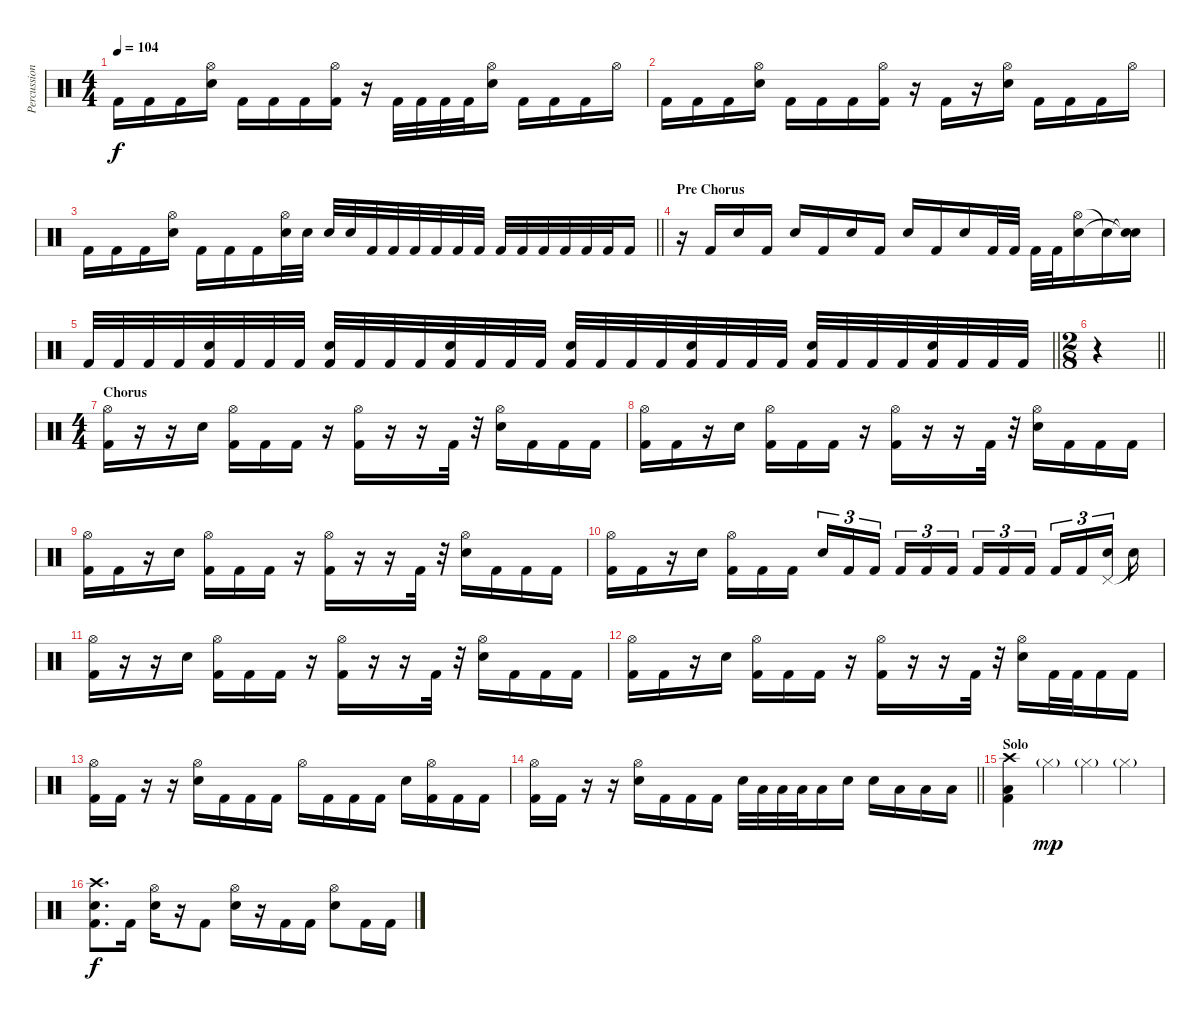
\track ("Percussion" "Percussion") {instrument percussion}
\staff {score}
\articulation defaults
\ts (4 4)
\tempo 104
\clef neutral
\ks c "Kick (hit) 2".16{dy f} "Kick (hit) 2".16 "Kick (hit) 2".16
("Hi-Hat (open)" "Snare (hit) 2").16 "Kick (hit) 2".16 "Kick (hit) 2".16 "Kick (hit) 2".16 ("Hi-Hat (open)" "Kick (hit) 2").16 r.16 "Kick (hit) 2".32 "Kick (hit) 2".32 "Kick (hit) 2".32 "Kick (hit) 2".32 ("Hi-Hat (open)" "Snare (hit) 2").16 "Kick (hit) 2".16 "Kick (hit) 2".16 "Kick (hit) 2".16 "Hi-Hat (open)".16 |
"Kick (hit) 2".16 "Kick (hit) 2".16 "Kick (hit) 2".16 ("Hi-Hat (open)" "Snare (hit) 2").16 "Kick (hit) 2".16 "Kick (hit) 2".16 "Kick (hit) 2".16 ("Hi-Hat (open)" "Kick (hit) 2").16 r.16 "Kick (hit) 2".16 r.16 ("Hi-Hat (open)" "Snare (hit) 2").16 "Kick (hit) 2".16 "Kick (hit) 2".16 "Kick (hit) 2".16 "Hi-Hat (open)".16 |
\barLineRight lightlight "Kick (hit) 2".16 "Kick (hit) 2".16 "Kick (hit) 2".16
("Hi-Hat (open)" "Snare (hit) 2").16 "Kick (hit) 2".16 "Kick (hit) 2".16 "Kick (hit) 2".16 ("Hi-Hat (open)" "Snare (hit) 2").32 "Snare (hit) 2".32 "Snare (hit) 2".32 "Snare (hit) 2".32 "Kick (hit) 2".32 "Kick (hit) 2".32 "Kick (hit) 2".32 "Kick (hit) 2".32 "Kick (hit) 2".32 "Kick (hit) 2".32 "Kick (hit) 2".32 "Kick (hit) 2".32 "Kick (hit) 2".32 "Kick (hit) 2".32 "Kick (hit) 2".32 "Kick (hit) 2".32 "Kick (hit) 2".16 |
\section ("" "Pre Chorus")
r.16 "Kick (hit) 2".16 "Snare (hit) 2".16 "Kick (hit) 2".16 "Snare (hit) 2".16 "Kick (hit) 2".16 "Snare (hit) 2".16 "Kick (hit) 2".16 "Snare (hit) 2".16 "Kick (hit) 2".16 "Snare (hit) 2".16 "Kick (hit) 2".32 "Kick (hit) 2".32 "Kick (hit) 2".32 "Kick (hit) 2".32 ("Hi-Hat (open)" "Snare (hit) 2").16 "Snare (hit)"{t}.16 ("Snare (hit)"{t} "Snare (hit)"{t}).16 |
\barLineRight lightlight "Kick (hit) 2".32 "Kick (hit) 2".32 "Kick (hit) 2".32 "Kick (hit) 2".32
("Snare (hit) 2" "Kick (hit) 2").32 "Kick (hit) 2".32 "Kick (hit) 2".32 "Kick (hit) 2".32 ("Snare (hit) 2" "Kick (hit) 2").32 "Kick (hit) 2".32 "Kick (hit) 2".32 "Kick (hit) 2".32 ("Snare (hit) 2" "Kick (hit) 2").32 "Kick (hit) 2".32 "Kick (hit) 2".32 "Kick (hit) 2".32 ("Snare (hit) 2" "Kick (hit) 2").32 "Kick (hit) 2".32 "Kick (hit) 2".32 "Kick (hit) 2".32 ("Snare (hit) 2" "Kick (hit) 2").32 "Kick (hit) 2".32 "Kick (hit) 2".32 "Kick (hit) 2".32 ("Snare (hit) 2" "Kick (hit) 2").32 "Kick (hit) 2".32 "Kick (hit) 2".32 "Kick (hit) 2".32 ("Snare (hit) 2" "Kick (hit) 2").32 "Kick (hit) 2".32 "Kick (hit) 2".32 "Kick (hit) 2".32 |
\ts (2 8)
\barLineRight lightlight
r.4 |
\ts (4 4)
\section ("" "Chorus")
("Hi-Hat (open)" "Kick (hit) 2").16 r.16 r.16 "Snare (hit) 2".16 ("Hi-Hat (open)" "Kick (hit) 2").16 "Kick (hit) 2".16 "Kick (hit) 2".16 r.16 ("Hi-Hat (open)" "Kick (hit) 2").16 r.16 r.16 "Kick (hit) 2".32 r.32 ("Hi-Hat (open)" "Snare (hit) 2").16 "Kick (hit) 2".16 "Kick (hit) 2".16 "Kick (hit) 2".16 |
("Hi-Hat (open)" "Kick (hit) 2").16 "Kick (hit) 2".16 r.16 "Snare (hit) 2".16 ("Hi-Hat (open)" "Kick (hit) 2").16 "Kick (hit) 2".16 "Kick (hit) 2".16 r.16 ("Hi-Hat (open)" "Kick (hit) 2").16 r.16 r.16 "Kick (hit) 2".32 r.32 ("Hi-Hat (open)" "Snare (hit) 2").16 "Kick (hit) 2".16 "Kick (hit) 2".16 "Kick (hit) 2".16 |
("Hi-Hat (open)" "Kick (hit) 2").16 "Kick (hit) 2".16 r.16 "Snare (hit) 2".16 ("Hi-Hat (open)" "Kick (hit) 2").16 "Kick (hit) 2".16 "Kick (hit) 2".16 r.16 ("Hi-Hat (open)" "Kick (hit) 2").16 r.16 r.16 "Kick (hit) 2".32 r.32 ("Hi-Hat (open)" "Snare (hit) 2").16 "Kick (hit) 2".16 "Kick (hit) 2".16 "Kick (hit) 2".16 |
("Hi-Hat (open)" "Kick (hit) 2").16 "Kick (hit) 2".16 r.16 "Snare (hit) 2".16 ("Hi-Hat (open)" "Kick (hit) 2").16 "Kick (hit) 2".16 "Kick (hit) 2".16{beam splitsecondary} "Snare (hit) 2".16{tu (3 2)} "Kick (hit) 2".16{tu (3 2)} "Kick (hit) 2".16{tu (3 2) beam splitsecondary} "Kick (hit) 2".16{tu (3 2)} "Kick (hit) 2".16{tu (3 2)} "Kick (hit) 2".16{tu (3 2) beam splitsecondary} "Kick (hit) 2".16{tu (3 2)} "Kick (hit) 2".16{tu (3 2)} "Kick (hit) 2".16{tu (3 2) beam splitsecondary} "Kick (hit) 2".16{tu (3 2)} "Kick (hit) 2".16{tu (3 2)} ("Pedal Hi-Hat (hit)" "Snare (hit) 2").16{tu (3 2) beam splitsecondary} "Snare (hit)"{t}.16 |
("Hi-Hat (open)" "Kick (hit) 2").16 r.16 r.16 "Snare (hit) 2".16 ("Hi-Hat (open)" "Kick (hit) 2").16 "Kick (hit) 2".16 "Kick (hit) 2".16 r.16 ("Hi-Hat (open)" "Kick (hit) 2").16 r.16 r.16 "Kick (hit) 2".32 r.32 ("Hi-Hat (open)" "Snare (hit) 2").16 "Kick (hit) 2".16 "Kick (hit) 2".16 "Kick (hit) 2".16 |
("Hi-Hat (open)" "Kick (hit) 2").16 "Kick (hit) 2".16 r.16 "Snare (hit) 2".16 ("Hi-Hat (open)" "Kick (hit) 2").16 "Kick (hit) 2".16 "Kick (hit) 2".16 r.16 ("Hi-Hat (open)" "Kick (hit) 2").16 r.16 r.16 "Kick (hit) 2".32 r.32 ("Hi-Hat (open)" "Snare (hit) 2").16 "Kick (hit) 2".32 "Kick (hit) 2".32 "Kick (hit) 2".16 "Kick (hit) 2".16 |
("Hi-Hat (open)" "Kick (hit) 2").16 "Kick (hit) 2".16 r.16 r.16 ("Hi-Hat (open)" "Snare (hit) 2").16 "Kick (hit) 2".16 "Kick (hit) 2".16 "Kick (hit) 2".16 "Hi-Hat (open)".16 "Kick (hit) 2".16 "Kick (hit) 2".16 "Kick (hit) 2".16 "Snare (hit) 2".16 ("Hi-Hat (open)" "Kick (hit) 2").16 "Kick (hit) 2".16 "Kick (hit) 2".16 |
\barLineRight lightlight
("Hi-Hat (open)" "Kick (hit) 2").16 "Kick (hit) 2".16 r.16 r.16 ("Hi-Hat (open)" "Snare (hit) 2").16 "Kick (hit) 2".16 "Kick (hit) 2".16 "Kick (hit) 2".16 "Snare (hit) 2".32 "Low Tom (hit)".32 "Low Tom (hit)".32 "Low Tom (hit)".32 "Low Tom (hit)".16 "Snare (hit) 2".16 "Snare (hit) 2".16 "Low Tom (hit)".16 "Low Tom (hit)".16 "Low Tom (hit)".16 |
\section ("" "Solo")
("Crash high (hit)" "Low Tom (hit)" "Kick (hit) 2").4 "Hi-Hat (closed)"{g}.4{dy mp} "Hi-Hat (closed)"{g}.4 "Hi-Hat (closed)"{g}.4 |
("Crash high (hit)" "Snare (hit) 2" "Kick (hit) 2").8{d dy f} "Kick (hit) 2".16 ("Hi-Hat (open)" "Snare (hit) 2").16 r.16 "Kick (hit) 2".8 ("Hi-Hat (open)" "Snare (hit) 2").16 r.16 "Kick (hit) 2".16 "Kick (hit) 2".16 ("Hi-Hat (open)" "Snare (hit) 2").8 "Kick (hit) 2".16 "Kick (hit) 2".16
